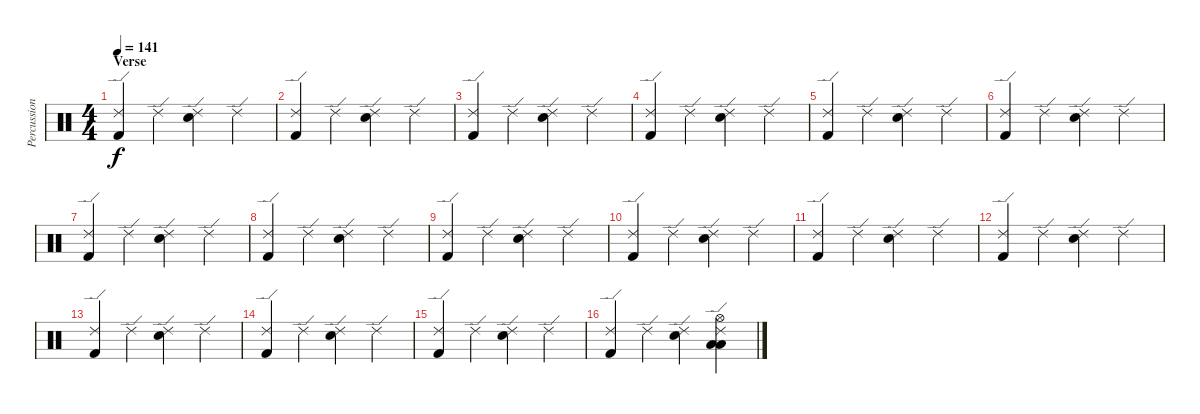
\track ("Percussion" "Percussion") {instrument percussion}
\staff {score}
\articulation defaults
\ts (4 4)
\section ("" "Verse")
\tempo 141
\clef neutral
\ks c
("Ride (edge) 2" "Kick (hit) 2").4{dy f} "Ride (edge) 2".4 ("Ride (edge) 2" "Electric Snare (hit)").4 "Ride (edge) 2".4 |
("Ride (edge) 2" "Kick (hit) 2").4 "Ride (edge) 2".4 ("Ride (edge) 2" "Electric Snare (hit)").4 "Ride (edge) 2".4 |
("Ride (edge) 2" "Kick (hit) 2").4 "Ride (edge) 2".4 ("Ride (edge) 2" "Electric Snare (hit)").4 "Ride (edge) 2".4 |
("Ride (edge) 2" "Kick (hit) 2").4 "Ride (edge) 2".4 ("Ride (edge) 2" "Electric Snare (hit)").4 "Ride (edge) 2".4 |
("Ride (edge) 2" "Kick (hit) 2").4 "Ride (edge) 2".4 ("Ride (edge) 2" "Electric Snare (hit)").4 "Ride (edge) 2".4 |
("Ride (edge) 2" "Kick (hit) 2").4 "Ride (edge) 2".4 ("Ride (edge) 2" "Electric Snare (hit)").4 "Ride (edge) 2".4 |
("Ride (edge) 2" "Kick (hit) 2").4 "Ride (edge) 2".4 ("Ride (edge) 2" "Electric Snare (hit)").4 "Ride (edge) 2".4 |
("Ride (edge) 2" "Kick (hit) 2").4 "Ride (edge) 2".4 ("Ride (edge) 2" "Electric Snare (hit)").4 "Ride (edge) 2".4 |
("Ride (edge) 2" "Kick (hit) 2").4 "Ride (edge) 2".4 ("Ride (edge) 2" "Electric Snare (hit)").4 "Ride (edge) 2".4 |
("Ride (edge) 2" "Kick (hit) 2").4 "Ride (edge) 2".4 ("Ride (edge) 2" "Electric Snare (hit)").4 "Ride (edge) 2".4 |
("Ride (edge) 2" "Kick (hit) 2").4 "Ride (edge) 2".4 ("Ride (edge) 2" "Electric Snare (hit)").4 "Ride (edge) 2".4 |
("Ride (edge) 2" "Kick (hit) 2").4 "Ride (edge) 2".4 ("Ride (edge) 2" "Electric Snare (hit)").4 "Ride (edge) 2".4 |
("Ride (edge) 2" "Kick (hit) 2").4 "Ride (edge) 2".4 ("Ride (edge) 2" "Electric Snare (hit)").4 "Ride (edge) 2".4 |
("Ride (edge) 2" "Kick (hit) 2").4 "Ride (edge) 2".4 ("Ride (edge) 2" "Electric Snare (hit)").4 "Ride (edge) 2".4 |
("Ride (edge) 2" "Kick (hit) 2").4 "Ride (edge) 2".4 ("Ride (edge) 2" "Electric Snare (hit)").4 "Ride (edge) 2".4 |
("Ride (edge) 2" "Kick (hit) 2").4 "Ride (edge) 2".4 ("Ride (edge) 2" "Electric Snare (hit)").4 ("Ride (edge) 2" "Hi-Hat (open)" "Low Floor Tom (hit)" "Low Floor Tom (hit)").4
